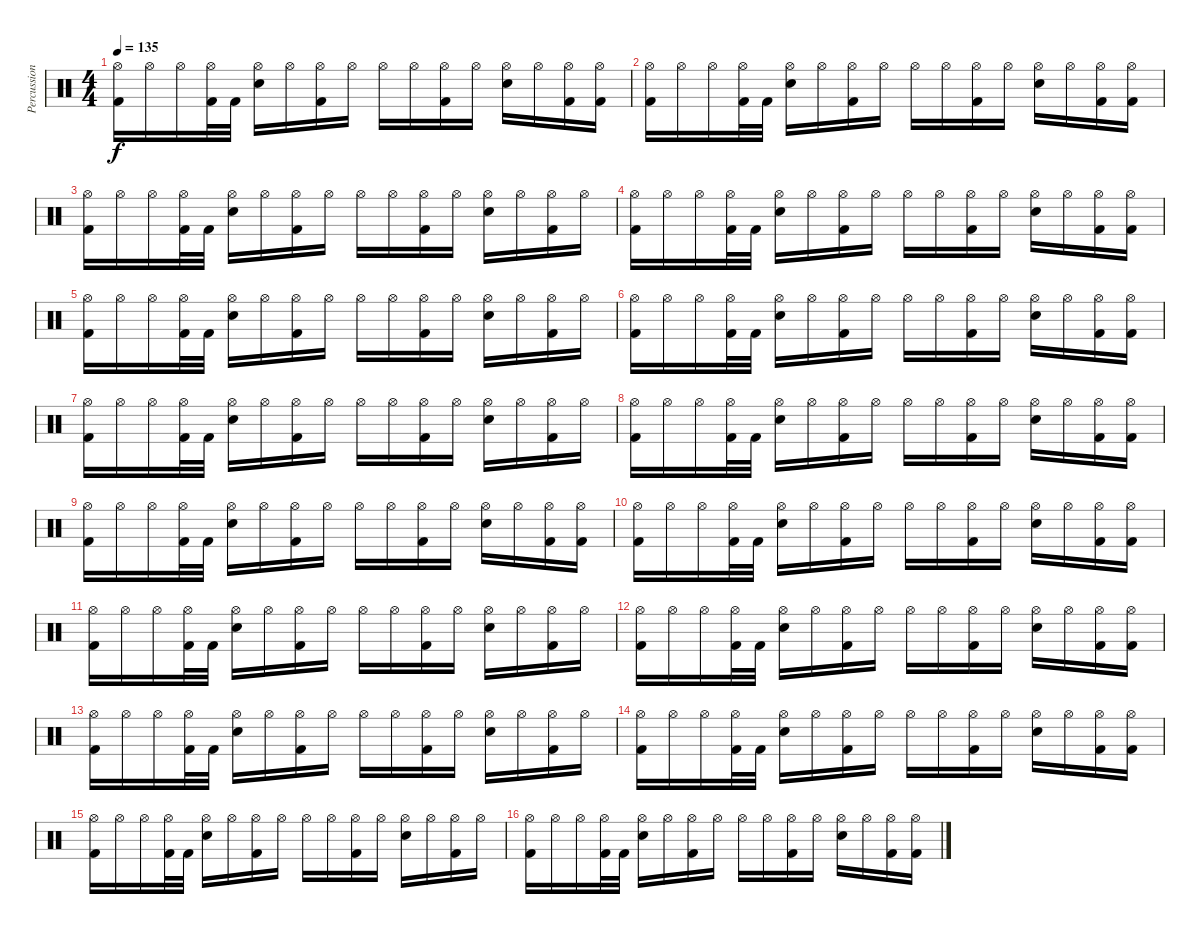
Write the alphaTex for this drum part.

\track ("Percussion" "Percussion") {instrument percussion}
\staff {score}
\articulation defaults
\ts (4 4)
\tempo 135
\clef neutral
\ks c
("Hi-Hat (open)" "Kick (hit) 2").16{dy f} "Hi-Hat (open)".16 "Hi-Hat (open)".16 ("Hi-Hat (open)" "Kick (hit) 2").32 "Kick (hit) 2".32 ("Hi-Hat (open)" "Snare (hit) 2").16 "Hi-Hat (open)".16 ("Hi-Hat (open)" "Kick (hit) 2").16 "Hi-Hat (open)".16 "Hi-Hat (open)".16 "Hi-Hat (open)".16 ("Hi-Hat (open)" "Kick (hit) 2").16 "Hi-Hat (open)".16 ("Hi-Hat (open)" "Snare (hit) 2").16 "Hi-Hat (open)".16 ("Hi-Hat (open)" "Kick (hit) 2").16 ("Hi-Hat (open)" "Kick (hit) 2").16 |
("Hi-Hat (open)" "Kick (hit) 2").16 "Hi-Hat (open)".16 "Hi-Hat (open)".16 ("Hi-Hat (open)" "Kick (hit) 2").32 "Kick (hit) 2".32 ("Hi-Hat (open)" "Snare (hit) 2").16 "Hi-Hat (open)".16 ("Hi-Hat (open)" "Kick (hit) 2").16 "Hi-Hat (open)".16 "Hi-Hat (open)".16 "Hi-Hat (open)".16 ("Hi-Hat (open)" "Kick (hit) 2").16 "Hi-Hat (open)".16 ("Hi-Hat (open)" "Snare (hit) 2").16 "Hi-Hat (open)".16 ("Hi-Hat (open)" "Kick (hit) 2").16 ("Hi-Hat (open)" "Kick (hit) 2").16 |
("Hi-Hat (open)" "Kick (hit) 2").16 "Hi-Hat (open)".16 "Hi-Hat (open)".16 ("Hi-Hat (open)" "Kick (hit) 2").32 "Kick (hit) 2".32 ("Hi-Hat (open)" "Snare (hit) 2").16 "Hi-Hat (open)".16 ("Hi-Hat (open)" "Kick (hit) 2").16 "Hi-Hat (open)".16 "Hi-Hat (open)".16 "Hi-Hat (open)".16 ("Hi-Hat (open)" "Kick (hit) 2").16 "Hi-Hat (open)".16 ("Hi-Hat (open)" "Snare (hit) 2").16 "Hi-Hat (open)".16 ("Hi-Hat (open)" "Kick (hit) 2").16 "Hi-Hat (open)".16 |
("Hi-Hat (open)" "Kick (hit) 2").16 "Hi-Hat (open)".16 "Hi-Hat (open)".16 ("Hi-Hat (open)" "Kick (hit) 2").32 "Kick (hit) 2".32 ("Hi-Hat (open)" "Snare (hit) 2").16 "Hi-Hat (open)".16 ("Hi-Hat (open)" "Kick (hit) 2").16 "Hi-Hat (open)".16 "Hi-Hat (open)".16 "Hi-Hat (open)".16 ("Hi-Hat (open)" "Kick (hit) 2").16 "Hi-Hat (open)".16 ("Hi-Hat (open)" "Snare (hit) 2").16 "Hi-Hat (open)".16 ("Hi-Hat (open)" "Kick (hit) 2").16 ("Hi-Hat (open)" "Kick (hit) 2").16 |
("Hi-Hat (open)" "Kick (hit) 2").16 "Hi-Hat (open)".16 "Hi-Hat (open)".16 ("Hi-Hat (open)" "Kick (hit) 2").32 "Kick (hit) 2".32 ("Hi-Hat (open)" "Snare (hit) 2").16 "Hi-Hat (open)".16 ("Hi-Hat (open)" "Kick (hit) 2").16 "Hi-Hat (open)".16 "Hi-Hat (open)".16 "Hi-Hat (open)".16 ("Hi-Hat (open)" "Kick (hit) 2").16 "Hi-Hat (open)".16 ("Hi-Hat (open)" "Snare (hit) 2").16 "Hi-Hat (open)".16 ("Hi-Hat (open)" "Kick (hit) 2").16 "Hi-Hat (open)".16 |
("Hi-Hat (open)" "Kick (hit) 2").16 "Hi-Hat (open)".16 "Hi-Hat (open)".16 ("Hi-Hat (open)" "Kick (hit) 2").32 "Kick (hit) 2".32 ("Hi-Hat (open)" "Snare (hit) 2").16 "Hi-Hat (open)".16 ("Hi-Hat (open)" "Kick (hit) 2").16 "Hi-Hat (open)".16 "Hi-Hat (open)".16 "Hi-Hat (open)".16 ("Hi-Hat (open)" "Kick (hit) 2").16 "Hi-Hat (open)".16 ("Hi-Hat (open)" "Snare (hit) 2").16 "Hi-Hat (open)".16 ("Hi-Hat (open)" "Kick (hit) 2").16 ("Hi-Hat (open)" "Kick (hit) 2").16 |
("Hi-Hat (open)" "Kick (hit) 2").16 "Hi-Hat (open)".16 "Hi-Hat (open)".16 ("Hi-Hat (open)" "Kick (hit) 2").32 "Kick (hit) 2".32 ("Hi-Hat (open)" "Snare (hit) 2").16 "Hi-Hat (open)".16 ("Hi-Hat (open)" "Kick (hit) 2").16 "Hi-Hat (open)".16 "Hi-Hat (open)".16 "Hi-Hat (open)".16 ("Hi-Hat (open)" "Kick (hit) 2").16 "Hi-Hat (open)".16 ("Hi-Hat (open)" "Snare (hit) 2").16 "Hi-Hat (open)".16 ("Hi-Hat (open)" "Kick (hit) 2").16 "Hi-Hat (open)".16 |
("Hi-Hat (open)" "Kick (hit) 2").16 "Hi-Hat (open)".16 "Hi-Hat (open)".16 ("Hi-Hat (open)" "Kick (hit) 2").32 "Kick (hit) 2".32 ("Hi-Hat (open)" "Snare (hit) 2").16 "Hi-Hat (open)".16 ("Hi-Hat (open)" "Kick (hit) 2").16 "Hi-Hat (open)".16 "Hi-Hat (open)".16 "Hi-Hat (open)".16 ("Hi-Hat (open)" "Kick (hit) 2").16 "Hi-Hat (open)".16 ("Hi-Hat (open)" "Snare (hit) 2").16 "Hi-Hat (open)".16 ("Hi-Hat (open)" "Kick (hit) 2").16 ("Hi-Hat (open)" "Kick (hit) 2").16 |
("Hi-Hat (open)" "Kick (hit) 2").16 "Hi-Hat (open)".16 "Hi-Hat (open)".16 ("Hi-Hat (open)" "Kick (hit) 2").32 "Kick (hit) 2".32 ("Hi-Hat (open)" "Snare (hit) 2").16 "Hi-Hat (open)".16 ("Hi-Hat (open)" "Kick (hit) 2").16 "Hi-Hat (open)".16 "Hi-Hat (open)".16 "Hi-Hat (open)".16 ("Hi-Hat (open)" "Kick (hit) 2").16 "Hi-Hat (open)".16 ("Hi-Hat (open)" "Snare (hit) 2").16 "Hi-Hat (open)".16 ("Hi-Hat (open)" "Kick (hit) 2").16 ("Hi-Hat (open)" "Kick (hit) 2").16 |
("Hi-Hat (open)" "Kick (hit) 2").16 "Hi-Hat (open)".16 "Hi-Hat (open)".16 ("Hi-Hat (open)" "Kick (hit) 2").32 "Kick (hit) 2".32 ("Hi-Hat (open)" "Snare (hit) 2").16 "Hi-Hat (open)".16 ("Hi-Hat (open)" "Kick (hit) 2").16 "Hi-Hat (open)".16 "Hi-Hat (open)".16 "Hi-Hat (open)".16 ("Hi-Hat (open)" "Kick (hit) 2").16 "Hi-Hat (open)".16 ("Hi-Hat (open)" "Snare (hit) 2").16 "Hi-Hat (open)".16 ("Hi-Hat (open)" "Kick (hit) 2").16 ("Hi-Hat (open)" "Kick (hit) 2").16 |
("Hi-Hat (open)" "Kick (hit) 2").16 "Hi-Hat (open)".16 "Hi-Hat (open)".16 ("Hi-Hat (open)" "Kick (hit) 2").32 "Kick (hit) 2".32 ("Hi-Hat (open)" "Snare (hit) 2").16 "Hi-Hat (open)".16 ("Hi-Hat (open)" "Kick (hit) 2").16 "Hi-Hat (open)".16 "Hi-Hat (open)".16 "Hi-Hat (open)".16 ("Hi-Hat (open)" "Kick (hit) 2").16 "Hi-Hat (open)".16 ("Hi-Hat (open)" "Snare (hit) 2").16 "Hi-Hat (open)".16 ("Hi-Hat (open)" "Kick (hit) 2").16 "Hi-Hat (open)".16 |
("Hi-Hat (open)" "Kick (hit) 2").16 "Hi-Hat (open)".16 "Hi-Hat (open)".16 ("Hi-Hat (open)" "Kick (hit) 2").32 "Kick (hit) 2".32 ("Hi-Hat (open)" "Snare (hit) 2").16 "Hi-Hat (open)".16 ("Hi-Hat (open)" "Kick (hit) 2").16 "Hi-Hat (open)".16 "Hi-Hat (open)".16 "Hi-Hat (open)".16 ("Hi-Hat (open)" "Kick (hit) 2").16 "Hi-Hat (open)".16 ("Hi-Hat (open)" "Snare (hit) 2").16 "Hi-Hat (open)".16 ("Hi-Hat (open)" "Kick (hit) 2").16 ("Hi-Hat (open)" "Kick (hit) 2").16 |
("Hi-Hat (open)" "Kick (hit) 2").16 "Hi-Hat (open)".16 "Hi-Hat (open)".16 ("Hi-Hat (open)" "Kick (hit) 2").32 "Kick (hit) 2".32 ("Hi-Hat (open)" "Snare (hit) 2").16 "Hi-Hat (open)".16 ("Hi-Hat (open)" "Kick (hit) 2").16 "Hi-Hat (open)".16 "Hi-Hat (open)".16 "Hi-Hat (open)".16 ("Hi-Hat (open)" "Kick (hit) 2").16 "Hi-Hat (open)".16 ("Hi-Hat (open)" "Snare (hit) 2").16 "Hi-Hat (open)".16 ("Hi-Hat (open)" "Kick (hit) 2").16 "Hi-Hat (open)".16 |
("Hi-Hat (open)" "Kick (hit) 2").16 "Hi-Hat (open)".16 "Hi-Hat (open)".16 ("Hi-Hat (open)" "Kick (hit) 2").32 "Kick (hit) 2".32 ("Hi-Hat (open)" "Snare (hit) 2").16 "Hi-Hat (open)".16 ("Hi-Hat (open)" "Kick (hit) 2").16 "Hi-Hat (open)".16 "Hi-Hat (open)".16 "Hi-Hat (open)".16 ("Hi-Hat (open)" "Kick (hit) 2").16 "Hi-Hat (open)".16 ("Hi-Hat (open)" "Snare (hit) 2").16 "Hi-Hat (open)".16 ("Hi-Hat (open)" "Kick (hit) 2").16 ("Hi-Hat (open)" "Kick (hit) 2").16 |
("Hi-Hat (open)" "Kick (hit) 2").16 "Hi-Hat (open)".16 "Hi-Hat (open)".16 ("Hi-Hat (open)" "Kick (hit) 2").32 "Kick (hit) 2".32 ("Hi-Hat (open)" "Snare (hit) 2").16 "Hi-Hat (open)".16 ("Hi-Hat (open)" "Kick (hit) 2").16 "Hi-Hat (open)".16 "Hi-Hat (open)".16 "Hi-Hat (open)".16 ("Hi-Hat (open)" "Kick (hit) 2").16 "Hi-Hat (open)".16 ("Hi-Hat (open)" "Snare (hit) 2").16 "Hi-Hat (open)".16 ("Hi-Hat (open)" "Kick (hit) 2").16 "Hi-Hat (open)".16 |
("Hi-Hat (open)" "Kick (hit) 2").16 "Hi-Hat (open)".16 "Hi-Hat (open)".16 ("Hi-Hat (open)" "Kick (hit) 2").32 "Kick (hit) 2".32 ("Hi-Hat (open)" "Snare (hit) 2").16 "Hi-Hat (open)".16 ("Hi-Hat (open)" "Kick (hit) 2").16 "Hi-Hat (open)".16 "Hi-Hat (open)".16 "Hi-Hat (open)".16 ("Hi-Hat (open)" "Kick (hit) 2").16 "Hi-Hat (open)".16 ("Hi-Hat (open)" "Snare (hit) 2").16 "Hi-Hat (open)".16 ("Hi-Hat (open)" "Kick (hit) 2").16 ("Hi-Hat (open)" "Kick (hit) 2").16
